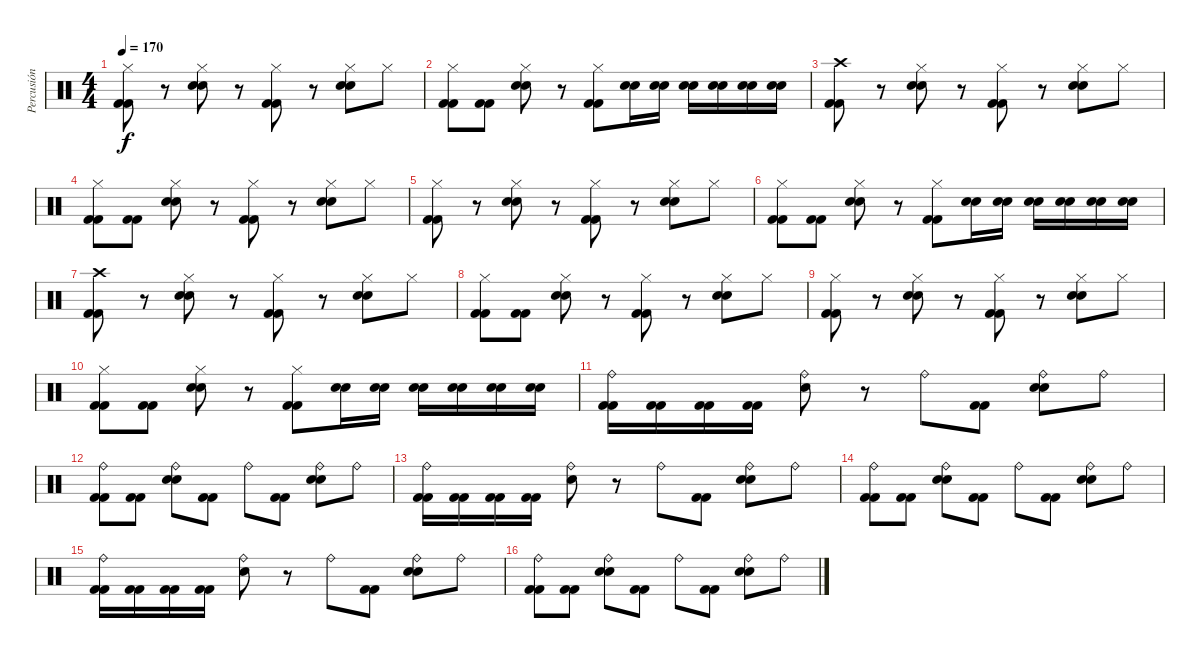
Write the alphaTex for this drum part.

\track ("Percusión" "Percusión") {instrument percussion}
\staff {score}
\articulation defaults
\ts (4 4)
\tempo 170
\clef neutral
\ks c
("Hi-Hat (closed)" "Kick (hit) 2" "Kick (hit) 2").8{dy f} r.8 ("Hi-Hat (closed)" "Electric Snare (hit)" "Electric Snare (hit)").8 r.8 ("Hi-Hat (closed)" "Kick (hit) 2" "Kick (hit) 2").8 r.8 ("Hi-Hat (closed)" "Electric Snare (hit)" "Electric Snare (hit)").8 "Hi-Hat (closed)".8 |
("Hi-Hat (closed)" "Kick (hit) 2" "Kick (hit) 2").8 ("Kick (hit) 2" "Kick (hit) 2").8 ("Hi-Hat (closed)" "Electric Snare (hit)" "Electric Snare (hit)").8 r.8 ("Hi-Hat (closed)" "Kick (hit) 2" "Kick (hit) 2").8 ("Electric Snare (hit)" "Electric Snare (hit)").16 ("Electric Snare (hit)" "Electric Snare (hit)").16 ("Electric Snare (hit)" "Electric Snare (hit)").16 ("Electric Snare (hit)" "Electric Snare (hit)").16 ("Electric Snare (hit)" "Electric Snare (hit)").16 ("Electric Snare (hit)" "Electric Snare (hit)").16 |
("Crash high (hit)" "Kick (hit) 2" "Kick (hit) 2").8 r.8 ("Hi-Hat (closed)" "Electric Snare (hit)" "Electric Snare (hit)").8 r.8 ("Hi-Hat (closed)" "Kick (hit) 2" "Kick (hit) 2").8 r.8 ("Hi-Hat (closed)" "Electric Snare (hit)" "Electric Snare (hit)").8 "Hi-Hat (closed)".8 |
("Hi-Hat (closed)" "Kick (hit) 2" "Kick (hit) 2").8 ("Kick (hit) 2" "Kick (hit) 2").8 ("Hi-Hat (closed)" "Electric Snare (hit)" "Electric Snare (hit)").8 r.8 ("Hi-Hat (closed)" "Kick (hit) 2" "Kick (hit) 2").8 r.8 ("Hi-Hat (closed)" "Electric Snare (hit)" "Electric Snare (hit)").8 "Hi-Hat (closed)".8 |
("Hi-Hat (closed)" "Kick (hit) 2" "Kick (hit) 2").8 r.8 ("Hi-Hat (closed)" "Electric Snare (hit)" "Electric Snare (hit)").8 r.8 ("Hi-Hat (closed)" "Kick (hit) 2" "Kick (hit) 2").8 r.8 ("Hi-Hat (closed)" "Electric Snare (hit)" "Electric Snare (hit)").8 "Hi-Hat (closed)".8 |
("Hi-Hat (closed)" "Kick (hit) 2" "Kick (hit) 2").8 ("Kick (hit) 2" "Kick (hit) 2").8 ("Hi-Hat (closed)" "Electric Snare (hit)" "Electric Snare (hit)").8 r.8 ("Hi-Hat (closed)" "Kick (hit) 2" "Kick (hit) 2").8 ("Electric Snare (hit)" "Electric Snare (hit)").16 ("Electric Snare (hit)" "Electric Snare (hit)").16 ("Electric Snare (hit)" "Electric Snare (hit)").16 ("Electric Snare (hit)" "Electric Snare (hit)").16 ("Electric Snare (hit)" "Electric Snare (hit)").16 ("Electric Snare (hit)" "Electric Snare (hit)").16 |
("Crash high (hit)" "Kick (hit) 2" "Kick (hit) 2").8 r.8 ("Hi-Hat (closed)" "Electric Snare (hit)" "Electric Snare (hit)").8 r.8 ("Hi-Hat (closed)" "Kick (hit) 2" "Kick (hit) 2").8 r.8 ("Hi-Hat (closed)" "Electric Snare (hit)" "Electric Snare (hit)").8 "Hi-Hat (closed)".8 |
("Hi-Hat (closed)" "Kick (hit) 2" "Kick (hit) 2").8 ("Kick (hit) 2" "Kick (hit) 2").8 ("Hi-Hat (closed)" "Electric Snare (hit)" "Electric Snare (hit)").8 r.8 ("Hi-Hat (closed)" "Kick (hit) 2" "Kick (hit) 2").8 r.8 ("Hi-Hat (closed)" "Electric Snare (hit)" "Electric Snare (hit)").8 "Hi-Hat (closed)".8 |
("Hi-Hat (closed)" "Kick (hit) 2" "Kick (hit) 2").8 r.8 ("Hi-Hat (closed)" "Electric Snare (hit)" "Electric Snare (hit)").8 r.8 ("Hi-Hat (closed)" "Kick (hit) 2" "Kick (hit) 2").8 r.8 ("Hi-Hat (closed)" "Electric Snare (hit)" "Electric Snare (hit)").8 "Hi-Hat (closed)".8 |
("Hi-Hat (closed)" "Kick (hit) 2" "Kick (hit) 2").8 ("Kick (hit) 2" "Kick (hit) 2").8 ("Hi-Hat (closed)" "Electric Snare (hit)" "Electric Snare (hit)").8 r.8 ("Hi-Hat (closed)" "Kick (hit) 2" "Kick (hit) 2").8 ("Electric Snare (hit)" "Electric Snare (hit)").16 ("Electric Snare (hit)" "Electric Snare (hit)").16 ("Electric Snare (hit)" "Electric Snare (hit)").16 ("Electric Snare (hit)" "Electric Snare (hit)").16 ("Electric Snare (hit)" "Electric Snare (hit)").16 ("Electric Snare (hit)" "Electric Snare (hit)").16 |
("Ride (bell)" "Kick (hit) 2" "Kick (hit) 2").16 ("Kick (hit) 2" "Kick (hit) 2").16 ("Kick (hit) 2" "Kick (hit) 2").16 ("Kick (hit) 2" "Kick (hit) 2").16 ("Ride (bell)" "Electric Snare (hit)").8 r.8 "Ride (bell)".8 ("Kick (hit) 2" "Kick (hit) 2").8 ("Ride (bell)" "Electric Snare (hit)" "Electric Snare (hit)").8 "Ride (bell)".8 |
("Ride (bell)" "Kick (hit) 2" "Kick (hit) 2").8 ("Kick (hit) 2" "Kick (hit) 2").8 ("Ride (bell)" "Electric Snare (hit)" "Electric Snare (hit)").8 ("Kick (hit) 2" "Kick (hit) 2").8 "Ride (bell)".8 ("Kick (hit) 2" "Kick (hit) 2").8 ("Ride (bell)" "Electric Snare (hit)" "Electric Snare (hit)").8 "Ride (bell)".8 |
("Ride (bell)" "Kick (hit) 2" "Kick (hit) 2").16 ("Kick (hit) 2" "Kick (hit) 2").16 ("Kick (hit) 2" "Kick (hit) 2").16 ("Kick (hit) 2" "Kick (hit) 2").16 ("Ride (bell)" "Electric Snare (hit)").8 r.8 "Ride (bell)".8 ("Kick (hit) 2" "Kick (hit) 2").8 ("Ride (bell)" "Electric Snare (hit)" "Electric Snare (hit)").8 "Ride (bell)".8 |
("Ride (bell)" "Kick (hit) 2" "Kick (hit) 2").8 ("Kick (hit) 2" "Kick (hit) 2").8 ("Ride (bell)" "Electric Snare (hit)" "Electric Snare (hit)").8 ("Kick (hit) 2" "Kick (hit) 2").8 "Ride (bell)".8 ("Kick (hit) 2" "Kick (hit) 2").8 ("Ride (bell)" "Electric Snare (hit)" "Electric Snare (hit)").8 "Ride (bell)".8 |
("Ride (bell)" "Kick (hit) 2" "Kick (hit) 2").16 ("Kick (hit) 2" "Kick (hit) 2").16 ("Kick (hit) 2" "Kick (hit) 2").16 ("Kick (hit) 2" "Kick (hit) 2").16 ("Ride (bell)" "Electric Snare (hit)").8 r.8 "Ride (bell)".8 ("Kick (hit) 2" "Kick (hit) 2").8 ("Ride (bell)" "Electric Snare (hit)" "Electric Snare (hit)").8 "Ride (bell)".8 |
("Ride (bell)" "Kick (hit) 2" "Kick (hit) 2").8 ("Kick (hit) 2" "Kick (hit) 2").8 ("Ride (bell)" "Electric Snare (hit)" "Electric Snare (hit)").8 ("Kick (hit) 2" "Kick (hit) 2").8 "Ride (bell)".8 ("Kick (hit) 2" "Kick (hit) 2").8 ("Ride (bell)" "Electric Snare (hit)" "Electric Snare (hit)").8 "Ride (bell)".8
